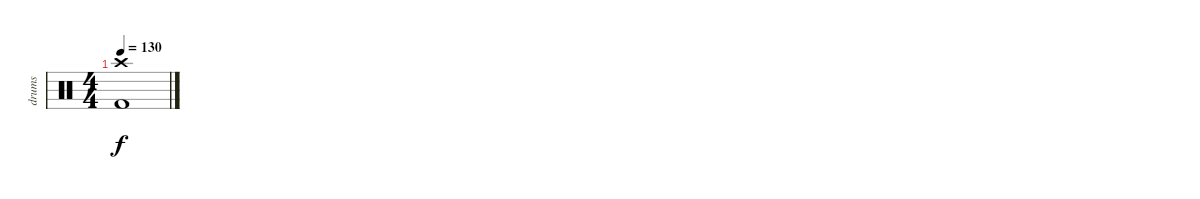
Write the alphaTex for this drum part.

\track ("drums" "drums") {instrument percussion}
\staff {score}
\articulation defaults
\ts (4 4)
\tempo 130
\clef neutral
\ks c
("Kick (hit) 2" "Crash high (hit)").1{dy f}
